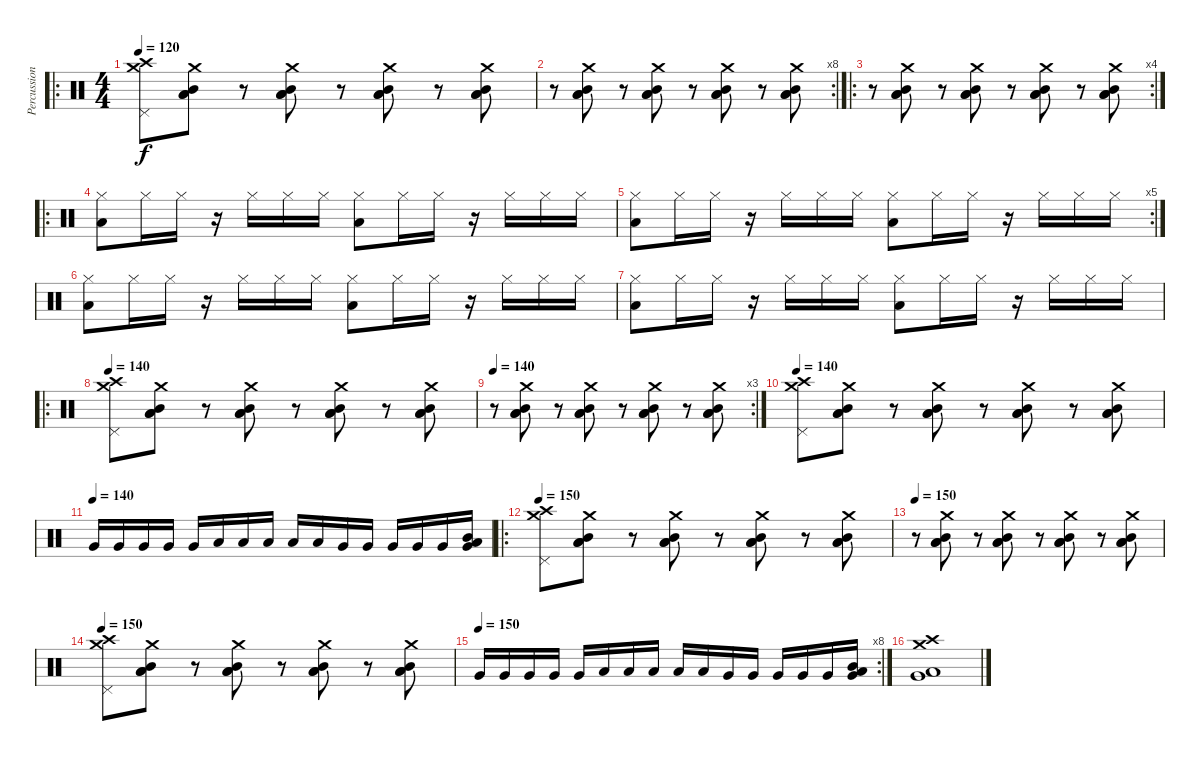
\track ("Percussions" "Percussion") {instrument percussion}
\staff {score}
\articulation defaults
\ro
\ts (4 4)
\tempo 120
\clef neutral
\ks c
("Pedal Hi-Hat (hit)" "Crash high (hit)" "Crash medium (hit)").8{dy f} ("Low Floor Tom (hit)" "Mid Tom (hit)" "Crash medium (hit)" "Low Tom (hit)").8 r.8 ("Low Floor Tom (hit)" "Mid Tom (hit)" "Crash medium (hit)" "Low Tom (hit)").8 r.8 ("Low Floor Tom (hit)" "Mid Tom (hit)" "Crash medium (hit)" "Low Tom (hit)").8 r.8 ("Low Floor Tom (hit)" "Mid Tom (hit)" "Crash medium (hit)" "Low Tom (hit)").8 |
\rc 8
r.8 ("Low Floor Tom (hit)" "Mid Tom (hit)" "Crash medium (hit)" "Low Tom (hit)").8 r.8 ("Low Floor Tom (hit)" "Mid Tom (hit)" "Crash medium (hit)" "Low Tom (hit)").8 r.8 ("Low Floor Tom (hit)" "Mid Tom (hit)" "Crash medium (hit)" "Low Tom (hit)").8 r.8 ("Low Floor Tom (hit)" "Mid Tom (hit)" "Crash medium (hit)" "Low Tom (hit)").8 |
\ro
\rc 4
r.8 ("Low Floor Tom (hit)" "Mid Tom (hit)" "Crash medium (hit)" "Low Tom (hit)").8 r.8 ("Low Floor Tom (hit)" "Mid Tom (hit)" "Crash medium (hit)" "Low Tom (hit)").8 r.8 ("Low Floor Tom (hit)" "Mid Tom (hit)" "Crash medium (hit)" "Low Tom (hit)").8 r.8 ("Low Floor Tom (hit)" "Mid Tom (hit)" "Crash medium (hit)" "Low Tom (hit)").8 |
\ro
("Low Floor Tom (hit)" "Hi-Hat (closed)").8 "Hi-Hat (closed)".16 "Hi-Hat (closed)".16 r.16 "Hi-Hat (closed)".16 "Hi-Hat (closed)".16 "Hi-Hat (closed)".16 ("Low Floor Tom (hit)" "Hi-Hat (closed)").8 "Hi-Hat (closed)".16 "Hi-Hat (closed)".16 r.16 "Hi-Hat (closed)".16 "Hi-Hat (closed)".16 "Hi-Hat (closed)".16 |
\rc 5
("Low Floor Tom (hit)" "Hi-Hat (closed)").8 "Hi-Hat (closed)".16 "Hi-Hat (closed)".16 r.16 "Hi-Hat (closed)".16 "Hi-Hat (closed)".16 "Hi-Hat (closed)".16 ("Low Floor Tom (hit)" "Hi-Hat (closed)").8 "Hi-Hat (closed)".16 "Hi-Hat (closed)".16 r.16 "Hi-Hat (closed)".16 "Hi-Hat (closed)".16 "Hi-Hat (closed)".16 |
("Low Floor Tom (hit)" "Hi-Hat (closed)").8 "Hi-Hat (closed)".16 "Hi-Hat (closed)".16 r.16 "Hi-Hat (closed)".16 "Hi-Hat (closed)".16 "Hi-Hat (closed)".16 ("Low Floor Tom (hit)" "Hi-Hat (closed)").8 "Hi-Hat (closed)".16 "Hi-Hat (closed)".16 r.16 "Hi-Hat (closed)".16 "Hi-Hat (closed)".16 "Hi-Hat (closed)".16 |
("Low Floor Tom (hit)" "Hi-Hat (closed)").8 "Hi-Hat (closed)".16 "Hi-Hat (closed)".16 r.16 "Hi-Hat (closed)".16 "Hi-Hat (closed)".16 "Hi-Hat (closed)".16 ("Low Floor Tom (hit)" "Hi-Hat (closed)").8 "Hi-Hat (closed)".16 "Hi-Hat (closed)".16 r.16 "Hi-Hat (closed)".16 "Hi-Hat (closed)".16 "Hi-Hat (closed)".16 |
\ro
\tempo 140
("Pedal Hi-Hat (hit)" "Crash high (hit)" "Crash medium (hit)").8 ("Low Floor Tom (hit)" "Mid Tom (hit)" "Crash medium (hit)" "Low Tom (hit)").8 r.8 ("Low Floor Tom (hit)" "Mid Tom (hit)" "Crash medium (hit)" "Low Tom (hit)").8 r.8 ("Low Floor Tom (hit)" "Mid Tom (hit)" "Crash medium (hit)" "Low Tom (hit)").8 r.8 ("Low Floor Tom (hit)" "Mid Tom (hit)" "Crash medium (hit)" "Low Tom (hit)").8 |
\rc 3
\tempo 140
r.8 ("Low Floor Tom (hit)" "Mid Tom (hit)" "Crash medium (hit)" "Low Tom (hit)").8 r.8 ("Low Floor Tom (hit)" "Mid Tom (hit)" "Crash medium (hit)" "Low Tom (hit)").8 r.8 ("Low Floor Tom (hit)" "Mid Tom (hit)" "Crash medium (hit)" "Low Tom (hit)").8 r.8 ("Low Floor Tom (hit)" "Mid Tom (hit)" "Crash medium (hit)" "Low Tom (hit)").8 |
\tempo 140
("Pedal Hi-Hat (hit)" "Crash high (hit)" "Crash medium (hit)").8 ("Low Floor Tom (hit)" "Mid Tom (hit)" "Crash medium (hit)" "Low Tom (hit)").8 r.8 ("Low Floor Tom (hit)" "Mid Tom (hit)" "Crash medium (hit)" "Low Tom (hit)").8 r.8 ("Low Floor Tom (hit)" "Mid Tom (hit)" "Crash medium (hit)" "Low Tom (hit)").8 r.8 ("Low Floor Tom (hit)" "Mid Tom (hit)" "Crash medium (hit)" "Low Tom (hit)").8 |
\tempo (140)
"Very Low Tom (hit)".16 "Very Low Tom (hit)".16 "Very Low Tom (hit)".16 "Very Low Tom (hit)".16 "Very Low Tom (hit)".16 "Low Tom (hit)".16 "Low Tom (hit)".16 "Low Tom (hit)".16 "Low Tom (hit)".16 "Low Tom (hit)".16 "Very Low Tom (hit)".16 "Very Low Tom (hit)".16 "Very Low Tom (hit)".16 "Very Low Tom (hit)".16 "Very Low Tom (hit)".16 ("Low Floor Tom (hit)" "Very Low Tom (hit)" "Mid Tom (hit)").16 |
\ro
\tempo 150
("Pedal Hi-Hat (hit)" "Crash high (hit)" "Crash medium (hit)").8 ("Low Floor Tom (hit)" "Mid Tom (hit)" "Crash medium (hit)" "Low Tom (hit)").8 r.8 ("Low Floor Tom (hit)" "Mid Tom (hit)" "Crash medium (hit)" "Low Tom (hit)").8 r.8 ("Low Floor Tom (hit)" "Mid Tom (hit)" "Crash medium (hit)" "Low Tom (hit)").8 r.8 ("Low Floor Tom (hit)" "Mid Tom (hit)" "Crash medium (hit)" "Low Tom (hit)").8 |
\tempo 150
r.8 ("Low Floor Tom (hit)" "Mid Tom (hit)" "Crash medium (hit)" "Low Tom (hit)").8 r.8 ("Low Floor Tom (hit)" "Mid Tom (hit)" "Crash medium (hit)" "Low Tom (hit)").8 r.8 ("Low Floor Tom (hit)" "Mid Tom (hit)" "Crash medium (hit)" "Low Tom (hit)").8 r.8 ("Low Floor Tom (hit)" "Mid Tom (hit)" "Crash medium (hit)" "Low Tom (hit)").8 |
\tempo 150
("Pedal Hi-Hat (hit)" "Crash high (hit)" "Crash medium (hit)").8 ("Low Floor Tom (hit)" "Mid Tom (hit)" "Crash medium (hit)" "Low Tom (hit)").8 r.8 ("Low Floor Tom (hit)" "Mid Tom (hit)" "Crash medium (hit)" "Low Tom (hit)").8 r.8 ("Low Floor Tom (hit)" "Mid Tom (hit)" "Crash medium (hit)" "Low Tom (hit)").8 r.8 ("Low Floor Tom (hit)" "Mid Tom (hit)" "Crash medium (hit)" "Low Tom (hit)").8 |
\rc 8
\tempo (150)
"Very Low Tom (hit)".16 "Very Low Tom (hit)".16 "Very Low Tom (hit)".16 "Very Low Tom (hit)".16 "Very Low Tom (hit)".16 "Low Tom (hit)".16 "Low Tom (hit)".16 "Low Tom (hit)".16 "Low Tom (hit)".16 "Low Tom (hit)".16 "Very Low Tom (hit)".16 "Very Low Tom (hit)".16 "Very Low Tom (hit)".16 "Very Low Tom (hit)".16 "Very Low Tom (hit)".16 ("Low Floor Tom (hit)" "Very Low Tom (hit)" "Mid Tom (hit)").16 |
("Low Floor Tom (hit)" "Very Low Tom (hit)" "Crash high (hit)" "Crash medium (hit)").1
